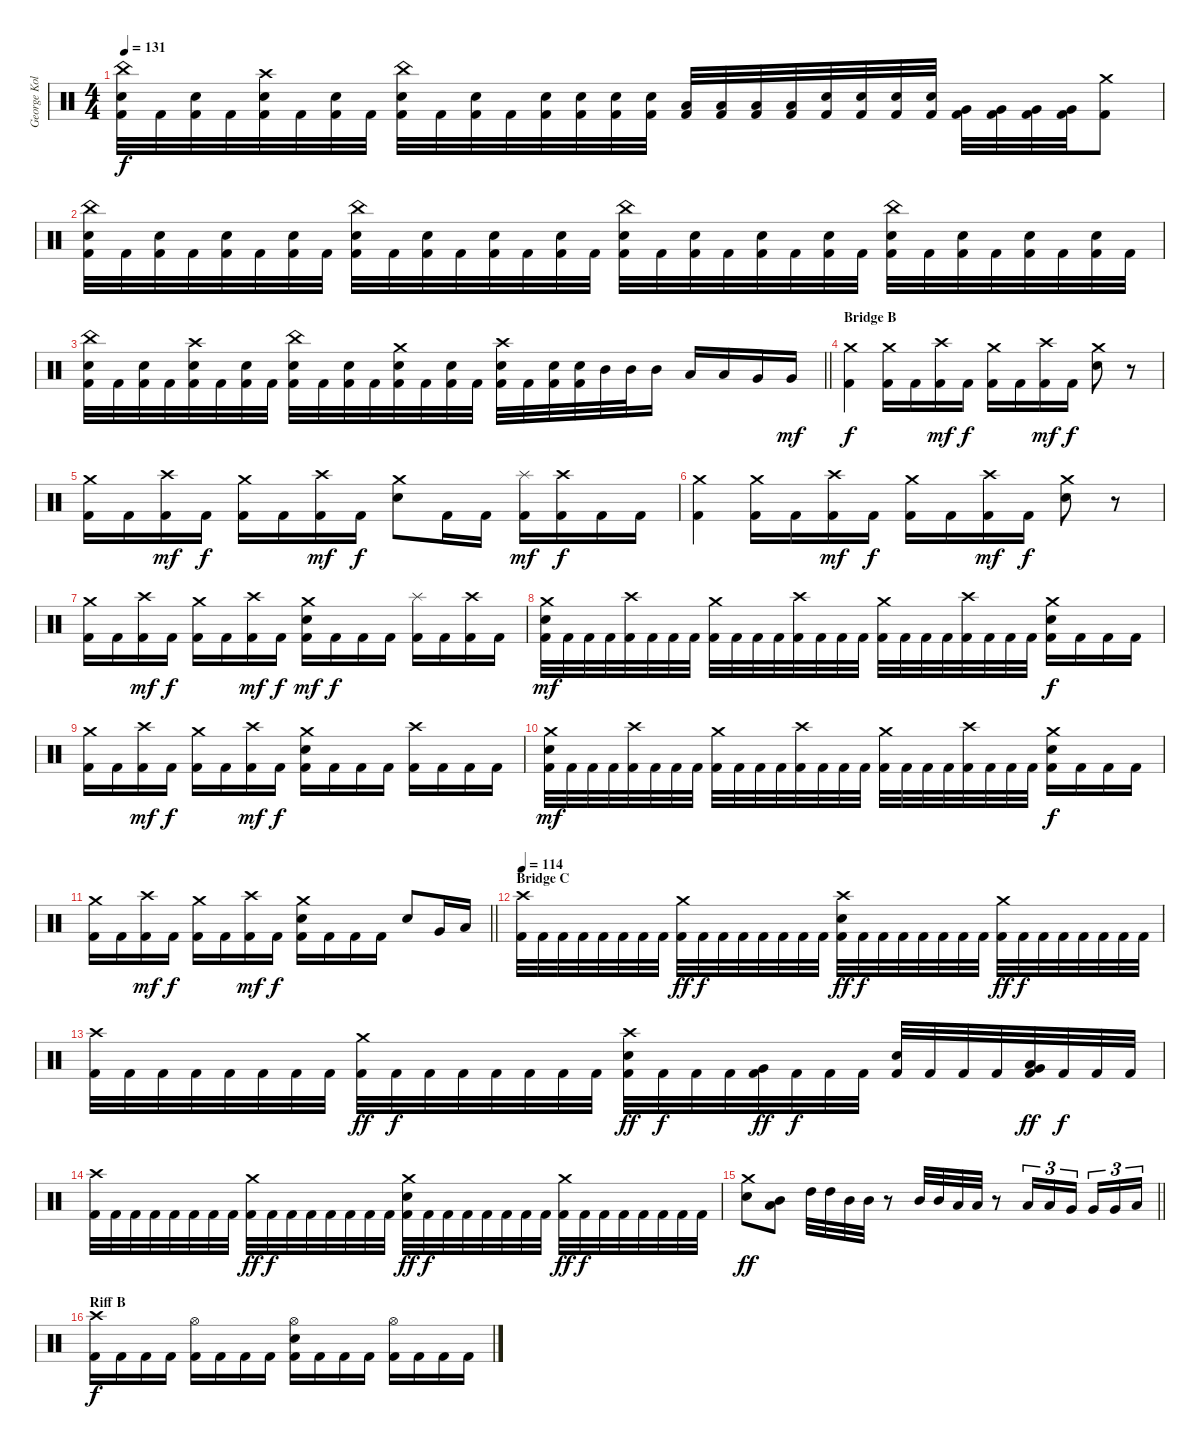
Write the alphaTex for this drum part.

\track ("George Kollias" "George Kol") {instrument percussion}
\staff {score}
\articulation defaults
\ts (4 4)
\tempo 131
\clef neutral
\ks c
("China (hit)" "Electric Snare (hit)" "Kick (hit) 2").32{dy f} "Kick (hit) 2".32 ("Electric Snare (hit)" "Kick (hit) 2").32 "Kick (hit) 2".32 ("Crash high (hit)" "Electric Snare (hit)" "Kick (hit) 2").32 "Kick (hit) 2".32 ("Electric Snare (hit)" "Kick (hit) 2").32 "Kick (hit) 2".32 ("China (hit)" "Electric Snare (hit)" "Kick (hit) 2").32 "Kick (hit) 2".32 ("Electric Snare (hit)" "Kick (hit) 2").32 "Kick (hit) 2".32 ("Electric Snare (hit)" "Kick (hit) 2").32 ("Electric Snare (hit)" "Kick (hit) 2").32 ("Electric Snare (hit)" "Kick (hit) 2").32 ("Electric Snare (hit)" "Kick (hit) 2").32 ("Low Tom (hit)" "Kick (hit) 2").32 ("Low Tom (hit)" "Kick (hit) 2").32 ("Low Tom (hit)" "Kick (hit) 2").32 ("Low Tom (hit)" "Kick (hit) 2").32 ("Electric Snare (hit)" "Kick (hit) 2").32 ("Electric Snare (hit)" "Kick (hit) 2").32 ("Electric Snare (hit)" "Kick (hit) 2").32 ("Electric Snare (hit)" "Kick (hit) 2").32 ("Very Low Tom (hit)" "Kick (hit) 2").32 ("Very Low Tom (hit)" "Kick (hit) 2").32 ("Very Low Tom (hit)" "Kick (hit) 2").32 ("Very Low Tom (hit)" "Kick (hit) 2").32 ("Crash medium (hit)" "Kick (hit) 2").8 |
("China (hit)" "Electric Snare (hit)" "Kick (hit) 2").32 "Kick (hit) 2".32 ("Electric Snare (hit)" "Kick (hit) 2").32 "Kick (hit) 2".32 ("Electric Snare (hit)" "Kick (hit) 2").32 "Kick (hit) 2".32 ("Electric Snare (hit)" "Kick (hit) 2").32 "Kick (hit) 2".32 ("China (hit)" "Electric Snare (hit)" "Kick (hit) 2").32 "Kick (hit) 2".32 ("Electric Snare (hit)" "Kick (hit) 2").32 "Kick (hit) 2".32 ("Electric Snare (hit)" "Kick (hit) 2").32 "Kick (hit) 2".32 ("Electric Snare (hit)" "Kick (hit) 2").32 "Kick (hit) 2".32 ("China (hit)" "Electric Snare (hit)" "Kick (hit) 2").32 "Kick (hit) 2".32 ("Electric Snare (hit)" "Kick (hit) 2").32 "Kick (hit) 2".32 ("Electric Snare (hit)" "Kick (hit) 2").32 "Kick (hit) 2".32 ("Electric Snare (hit)" "Kick (hit) 2").32 "Kick (hit) 2".32 ("China (hit)" "Electric Snare (hit)" "Kick (hit) 2").32 "Kick (hit) 2".32 ("Electric Snare (hit)" "Kick (hit) 2").32 "Kick (hit) 2".32 ("Electric Snare (hit)" "Kick (hit) 2").32 "Kick (hit) 2".32 ("Electric Snare (hit)" "Kick (hit) 2").32 "Kick (hit) 2".32 |
\barLineRight lightlight
("China (hit)" "Electric Snare (hit)" "Kick (hit) 2").32 "Kick (hit) 2".32 ("Electric Snare (hit)" "Kick (hit) 2").32 "Kick (hit) 2".32 ("Crash high (hit)" "Electric Snare (hit)" "Kick (hit) 2").32 "Kick (hit) 2".32 ("Electric Snare (hit)" "Kick (hit) 2").32 "Kick (hit) 2".32 ("China (hit)" "Electric Snare (hit)" "Kick (hit) 2").32 "Kick (hit) 2".32 ("Electric Snare (hit)" "Kick (hit) 2").32 "Kick (hit) 2".32 ("Crash medium (hit)" "Electric Snare (hit)" "Kick (hit) 2").32 "Kick (hit) 2".32 ("Electric Snare (hit)" "Kick (hit) 2").32 "Kick (hit) 2".32 ("Crash high (hit)" "Electric Snare (hit)" "Kick (hit) 2").32 "Kick (hit) 2".32 ("Electric Snare (hit)" "Kick (hit) 2").32 ("Electric Snare (hit)" "Kick (hit) 2").32 "Mid Tom (hit)".32 "Mid Tom (hit)".32 "Mid Tom (hit)".16 "Low Tom (hit)".16 "Low Tom (hit)".16 "Very Low Tom (hit)".16 "Very Low Tom (hit)".16{dy mf} |
\section ("" "Bridge B")
("Crash medium (hit)" "Kick (hit) 2").4{dy f} ("Crash medium (hit)" "Kick (hit) 2").16 "Kick (hit) 2".16 ("Crash high (hit)" "Kick (hit) 2").16{dy mf} "Kick (hit) 2".16{dy f} ("Crash medium (hit)" "Kick (hit) 2").16 "Kick (hit) 2".16 ("Crash high (hit)" "Kick (hit) 2").16{dy mf} "Kick (hit) 2".16{dy f} ("Crash medium (hit)" "Electric Snare (hit)").8 r.8 |
("Crash medium (hit)" "Kick (hit) 2").16 "Kick (hit) 2".16 ("Crash high (hit)" "Kick (hit) 2").16{dy mf} "Kick (hit) 2".16{dy f} ("Crash medium (hit)" "Kick (hit) 2").16 "Kick (hit) 2".16 ("Crash high (hit)" "Kick (hit) 2").16{dy mf} "Kick (hit) 2".16{dy f} ("Crash medium (hit)" "Electric Snare (hit)").8 "Kick (hit) 2".16 "Kick (hit) 2".16 ("Splash (hit)" "Kick (hit) 2").16{dy mf} ("Crash high (hit)" "Kick (hit) 2").16{dy f} "Kick (hit) 2".16 "Kick (hit) 2".16 |
("Crash medium (hit)" "Kick (hit) 2").4 ("Crash medium (hit)" "Kick (hit) 2").16 "Kick (hit) 2".16 ("Crash high (hit)" "Kick (hit) 2").16{dy mf} "Kick (hit) 2".16{dy f} ("Crash medium (hit)" "Kick (hit) 2").16 "Kick (hit) 2".16 ("Crash high (hit)" "Kick (hit) 2").16{dy mf} "Kick (hit) 2".16{dy f} ("Crash medium (hit)" "Electric Snare (hit)").8 r.8 |
("Crash medium (hit)" "Kick (hit) 2").16 "Kick (hit) 2".16 ("Crash high (hit)" "Kick (hit) 2").16{dy mf} "Kick (hit) 2".16{dy f} ("Crash medium (hit)" "Kick (hit) 2").16 "Kick (hit) 2".16 ("Crash high (hit)" "Kick (hit) 2").16{dy mf} "Kick (hit) 2".16{dy f} ("Crash medium (hit)" "Electric Snare (hit)" "Kick (hit) 2").16{dy mf} "Kick (hit) 2".16{dy f} "Kick (hit) 2".16 "Kick (hit) 2".16 ("Splash (hit)" "Kick (hit) 2").16 "Kick (hit) 2".16 ("Crash high (hit)" "Kick (hit) 2").16 "Kick (hit) 2".16 |
("Crash medium (hit)" "Electric Snare (hit)" "Kick (hit) 2").32{dy mf} "Kick (hit) 2".32 "Kick (hit) 2".32 "Kick (hit) 2".32 ("Crash high (hit)" "Kick (hit) 2").32 "Kick (hit) 2".32 "Kick (hit) 2".32 "Kick (hit) 2".32 ("Crash medium (hit)" "Kick (hit) 2").32 "Kick (hit) 2".32 "Kick (hit) 2".32 "Kick (hit) 2".32 ("Crash high (hit)" "Kick (hit) 2").32 "Kick (hit) 2".32 "Kick (hit) 2".32 "Kick (hit) 2".32 ("Crash medium (hit)" "Kick (hit) 2").32 "Kick (hit) 2".32 "Kick (hit) 2".32 "Kick (hit) 2".32 ("Crash high (hit)" "Kick (hit) 2").32 "Kick (hit) 2".32 "Kick (hit) 2".32 "Kick (hit) 2".32 ("Crash medium (hit)" "Electric Snare (hit)" "Kick (hit) 2").16{dy f} "Kick (hit) 2".16 "Kick (hit) 2".16 "Kick (hit) 2".16 |
("Crash medium (hit)" "Kick (hit) 2").16 "Kick (hit) 2".16 ("Crash high (hit)" "Kick (hit) 2").16{dy mf} "Kick (hit) 2".16{dy f} ("Crash medium (hit)" "Kick (hit) 2").16 "Kick (hit) 2".16 ("Crash high (hit)" "Kick (hit) 2").16{dy mf} "Kick (hit) 2".16{dy f} ("Crash medium (hit)" "Electric Snare (hit)" "Kick (hit) 2").16 "Kick (hit) 2".16 "Kick (hit) 2".16 "Kick (hit) 2".16 ("Crash high (hit)" "Kick (hit) 2").16 "Kick (hit) 2".16 "Kick (hit) 2".16 "Kick (hit) 2".16 |
("Crash medium (hit)" "Electric Snare (hit)" "Kick (hit) 2").32{dy mf} "Kick (hit) 2".32 "Kick (hit) 2".32 "Kick (hit) 2".32 ("Crash high (hit)" "Kick (hit) 2").32 "Kick (hit) 2".32 "Kick (hit) 2".32 "Kick (hit) 2".32 ("Crash medium (hit)" "Kick (hit) 2").32 "Kick (hit) 2".32 "Kick (hit) 2".32 "Kick (hit) 2".32 ("Crash high (hit)" "Kick (hit) 2").32 "Kick (hit) 2".32 "Kick (hit) 2".32 "Kick (hit) 2".32 ("Crash medium (hit)" "Kick (hit) 2").32 "Kick (hit) 2".32 "Kick (hit) 2".32 "Kick (hit) 2".32 ("Crash high (hit)" "Kick (hit) 2").32 "Kick (hit) 2".32 "Kick (hit) 2".32 "Kick (hit) 2".32 ("Crash medium (hit)" "Electric Snare (hit)" "Kick (hit) 2").16{dy f} "Kick (hit) 2".16 "Kick (hit) 2".16 "Kick (hit) 2".16 |
\barLineRight lightlight
("Crash medium (hit)" "Kick (hit) 2").16 "Kick (hit) 2".16 ("Crash high (hit)" "Kick (hit) 2").16{dy mf} "Kick (hit) 2".16{dy f} ("Crash medium (hit)" "Kick (hit) 2").16 "Kick (hit) 2".16 ("Crash high (hit)" "Kick (hit) 2").16{dy mf} "Kick (hit) 2".16{dy f} ("Crash medium (hit)" "Electric Snare (hit)" "Kick (hit) 2").16 "Kick (hit) 2".16 "Kick (hit) 2".16 "Kick (hit) 2".16 "Electric Snare (hit)".8 "Very Low Tom (hit)".16 "Low Floor Tom (hit)".16 |
\section ("" "Bridge C")
\tempo 114
("Crash high (hit)" "Kick (hit) 2").32 "Kick (hit) 2".32 "Kick (hit) 2".32 "Kick (hit) 2".32 "Kick (hit) 2".32 "Kick (hit) 2".32 "Kick (hit) 2".32 "Kick (hit) 2".32 ("Crash medium (hit)" "Kick (hit) 2").32{dy ff} "Kick (hit) 2".32{dy f} "Kick (hit) 2".32 "Kick (hit) 2".32 "Kick (hit) 2".32 "Kick (hit) 2".32 "Kick (hit) 2".32 "Kick (hit) 2".32 ("Crash high (hit)" "Electric Snare (hit)" "Kick (hit) 2").32{dy ff} "Kick (hit) 2".32{dy f} "Kick (hit) 2".32 "Kick (hit) 2".32 "Kick (hit) 2".32 "Kick (hit) 2".32 "Kick (hit) 2".32 "Kick (hit) 2".32 ("Crash medium (hit)" "Kick (hit) 2").32{dy ff} "Kick (hit) 2".32{dy f} "Kick (hit) 2".32 "Kick (hit) 2".32 "Kick (hit) 2".32 "Kick (hit) 2".32 "Kick (hit) 2".32 "Kick (hit) 2".32 |
("Crash high (hit)" "Kick (hit) 2").32 "Kick (hit) 2".32 "Kick (hit) 2".32 "Kick (hit) 2".32 "Kick (hit) 2".32 "Kick (hit) 2".32 "Kick (hit) 2".32 "Kick (hit) 2".32 ("Crash medium (hit)" "Kick (hit) 2").32{dy ff} "Kick (hit) 2".32{dy f} "Kick (hit) 2".32 "Kick (hit) 2".32 "Kick (hit) 2".32 "Kick (hit) 2".32 "Kick (hit) 2".32 "Kick (hit) 2".32 ("Crash high (hit)" "Electric Snare (hit)" "Kick (hit) 2").32{dy ff} "Kick (hit) 2".32{dy f} "Kick (hit) 2".32 "Kick (hit) 2".32 ("Very Low Tom (hit)" "Kick (hit) 2").32{dy ff} "Kick (hit) 2".32{dy f} "Kick (hit) 2".32 "Kick (hit) 2".32 ("Electric Snare (hit)" "Kick (hit) 2").32 "Kick (hit) 2".32 "Kick (hit) 2".32 "Kick (hit) 2".32 ("Low Tom (hit)" "Very Low Tom (hit)" "Kick (hit) 2").32{dy ff} "Kick (hit) 2".32{dy f} "Kick (hit) 2".32 "Kick (hit) 2".32 |
("Crash high (hit)" "Kick (hit) 2").32 "Kick (hit) 2".32 "Kick (hit) 2".32 "Kick (hit) 2".32 "Kick (hit) 2".32 "Kick (hit) 2".32 "Kick (hit) 2".32 "Kick (hit) 2".32 ("Crash medium (hit)" "Kick (hit) 2").32{dy ff} "Kick (hit) 2".32{dy f} "Kick (hit) 2".32 "Kick (hit) 2".32 "Kick (hit) 2".32 "Kick (hit) 2".32 "Kick (hit) 2".32 "Kick (hit) 2".32 ("Crash medium (hit)" "Electric Snare (hit)" "Kick (hit) 2").32{dy ff} "Kick (hit) 2".32{dy f} "Kick (hit) 2".32 "Kick (hit) 2".32 "Kick (hit) 2".32 "Kick (hit) 2".32 "Kick (hit) 2".32 "Kick (hit) 2".32 ("Crash medium (hit)" "Kick (hit) 2").32{dy ff} "Kick (hit) 2".32{dy f} "Kick (hit) 2".32 "Kick (hit) 2".32 "Kick (hit) 2".32 "Kick (hit) 2".32 "Kick (hit) 2".32 "Kick (hit) 2".32 |
\barLineRight lightlight
("Crash medium (hit)" "Electric Snare (hit)").8{dy ff} ("Mid Tom (hit)" "Low Tom (hit)").8 "High Tom (hit)".32 "High Tom (hit)".32 "Mid Tom (hit)".32 "Mid Tom (hit)".32 r.8 "Mid Tom (hit)".32 "Mid Tom (hit)".32 "Low Tom (hit)".32 "Low Tom (hit)".32 r.8 "Low Tom (hit)".16{tu (3 2)} "Low Tom (hit)".16{tu (3 2)} "Very Low Tom (hit)".16{tu (3 2) beam splitsecondary} "Very Low Tom (hit)".16{tu (3 2)} "Very Low Tom (hit)".16{tu (3 2)} "Low Floor Tom (hit)".16{tu (3 2)} |
\section ("" "Riff B")
("Crash high (hit)" "Kick (hit) 2").16{dy f} "Kick (hit) 2".16 "Kick (hit) 2".16 "Kick (hit) 2".16 ("Hi-Hat (open)" "Kick (hit) 2").16 "Kick (hit) 2".16 "Kick (hit) 2".16 "Kick (hit) 2".16 ("Hi-Hat (open)" "Electric Snare (hit)" "Kick (hit) 2").16 "Kick (hit) 2".16 "Kick (hit) 2".16 "Kick (hit) 2".16 ("Hi-Hat (open)" "Kick (hit) 2").16 "Kick (hit) 2".16 "Kick (hit) 2".16 "Kick (hit) 2".16
